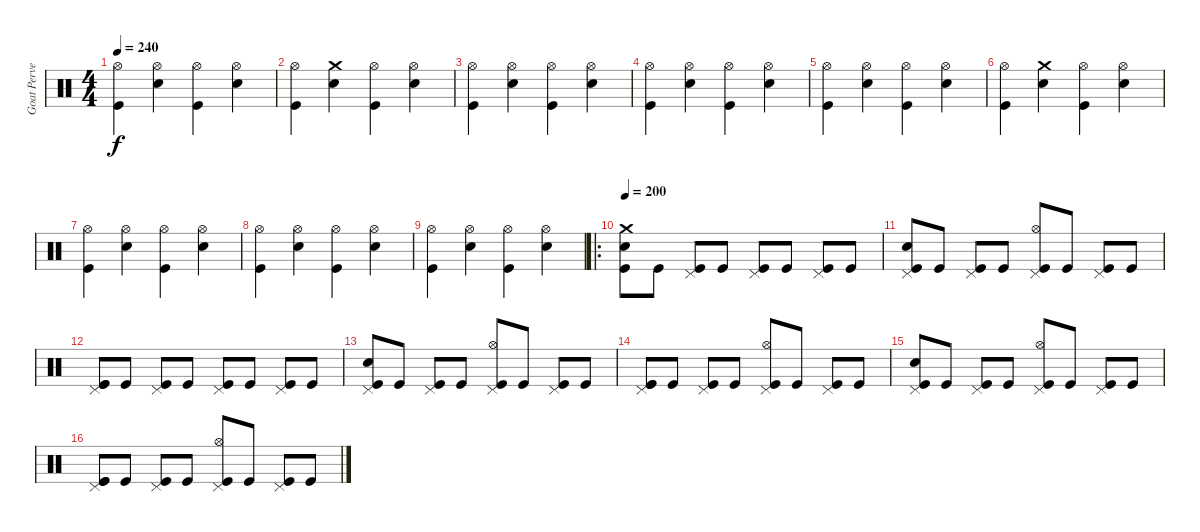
\track ("Goat Pervertor" "Goat Perve") {instrument percussion}
\staff {score}
\articulation defaults
\ts (4 4)
\tempo 240
\clef neutral
\ks c
("Kick (hit)" "Hi-Hat (open)").4{dy f} ("Snare (hit) 2" "Hi-Hat (open)").4 ("Kick (hit)" "Hi-Hat (open)").4 ("Snare (hit) 2" "Hi-Hat (open)").4 |
("Kick (hit)" "Hi-Hat (open)").4 ("Snare (hit) 2" "Crash medium (hit)").4 ("Kick (hit)" "Hi-Hat (open)").4 ("Snare (hit) 2" "Hi-Hat (open)").4 |
("Kick (hit)" "Hi-Hat (open)").4 ("Snare (hit) 2" "Hi-Hat (open)").4 ("Kick (hit)" "Hi-Hat (open)").4 ("Snare (hit) 2" "Hi-Hat (open)").4 |
("Kick (hit)" "Hi-Hat (open)").4 ("Snare (hit) 2" "Hi-Hat (open)").4 ("Kick (hit)" "Hi-Hat (open)").4 ("Snare (hit) 2" "Hi-Hat (open)").4 |
("Kick (hit)" "Hi-Hat (open)").4 ("Snare (hit) 2" "Hi-Hat (open)").4 ("Kick (hit)" "Hi-Hat (open)").4 ("Snare (hit) 2" "Hi-Hat (open)").4 |
("Kick (hit)" "Hi-Hat (open)").4 ("Snare (hit) 2" "Crash medium (hit)").4 ("Kick (hit)" "Hi-Hat (open)").4 ("Snare (hit) 2" "Hi-Hat (open)").4 |
("Kick (hit)" "Hi-Hat (open)").4 ("Snare (hit) 2" "Hi-Hat (open)").4 ("Kick (hit)" "Hi-Hat (open)").4 ("Snare (hit) 2" "Hi-Hat (open)").4 |
("Kick (hit)" "Hi-Hat (open)").4 ("Snare (hit) 2" "Hi-Hat (open)").4 ("Kick (hit)" "Hi-Hat (open)").4 ("Snare (hit) 2" "Hi-Hat (open)").4 |
("Kick (hit)" "Hi-Hat (open)").4 ("Snare (hit) 2" "Hi-Hat (open)").4 ("Kick (hit)" "Hi-Hat (open)").4 ("Snare (hit) 2" "Hi-Hat (open)").4 |
\ro
\tempo 200
("Kick (hit)" "Snare (hit) 2" "Crash medium (hit)").8 "Kick (hit)".8 ("Kick (hit)" "Pedal Hi-Hat (hit)").8 "Kick (hit)".8 ("Kick (hit)" "Pedal Hi-Hat (hit)").8 "Kick (hit)".8 ("Kick (hit)" "Pedal Hi-Hat (hit)").8 "Kick (hit)".8 |
("Kick (hit)" "Snare (hit) 2" "Pedal Hi-Hat (hit)").8 "Kick (hit)".8 ("Kick (hit)" "Pedal Hi-Hat (hit)").8 "Kick (hit)".8 ("Kick (hit)" "Hi-Hat (open)" "Pedal Hi-Hat (hit)").8 "Kick (hit)".8 ("Kick (hit)" "Pedal Hi-Hat (hit)").8 "Kick (hit)".8 |
("Kick (hit)" "Kick (hit)" "Pedal Hi-Hat (hit)").8 "Kick (hit)".8 ("Kick (hit)" "Pedal Hi-Hat (hit)").8 "Kick (hit)".8 ("Kick (hit)" "Pedal Hi-Hat (hit)").8 "Kick (hit)".8 ("Kick (hit)" "Pedal Hi-Hat (hit)").8 "Kick (hit)".8 |
("Kick (hit)" "Snare (hit) 2" "Pedal Hi-Hat (hit)").8 "Kick (hit)".8 ("Kick (hit)" "Pedal Hi-Hat (hit)").8 "Kick (hit)".8 ("Kick (hit)" "Hi-Hat (open)" "Pedal Hi-Hat (hit)").8 "Kick (hit)".8 ("Kick (hit)" "Pedal Hi-Hat (hit)").8 "Kick (hit)".8 |
("Kick (hit)" "Kick (hit)" "Pedal Hi-Hat (hit)").8 "Kick (hit)".8 ("Kick (hit)" "Pedal Hi-Hat (hit)").8 "Kick (hit)".8 ("Kick (hit)" "Hi-Hat (open)" "Pedal Hi-Hat (hit)").8 "Kick (hit)".8 ("Kick (hit)" "Pedal Hi-Hat (hit)").8 "Kick (hit)".8 |
("Kick (hit)" "Snare (hit) 2" "Pedal Hi-Hat (hit)").8 "Kick (hit)".8 ("Kick (hit)" "Pedal Hi-Hat (hit)").8 "Kick (hit)".8 ("Kick (hit)" "Hi-Hat (open)" "Pedal Hi-Hat (hit)").8 "Kick (hit)".8 ("Kick (hit)" "Pedal Hi-Hat (hit)").8 "Kick (hit)".8 |
("Kick (hit)" "Kick (hit)" "Pedal Hi-Hat (hit)").8 "Kick (hit)".8 ("Kick (hit)" "Pedal Hi-Hat (hit)").8 "Kick (hit)".8 ("Kick (hit)" "Hi-Hat (open)" "Pedal Hi-Hat (hit)").8 "Kick (hit)".8 ("Kick (hit)" "Pedal Hi-Hat (hit)").8 "Kick (hit)".8
